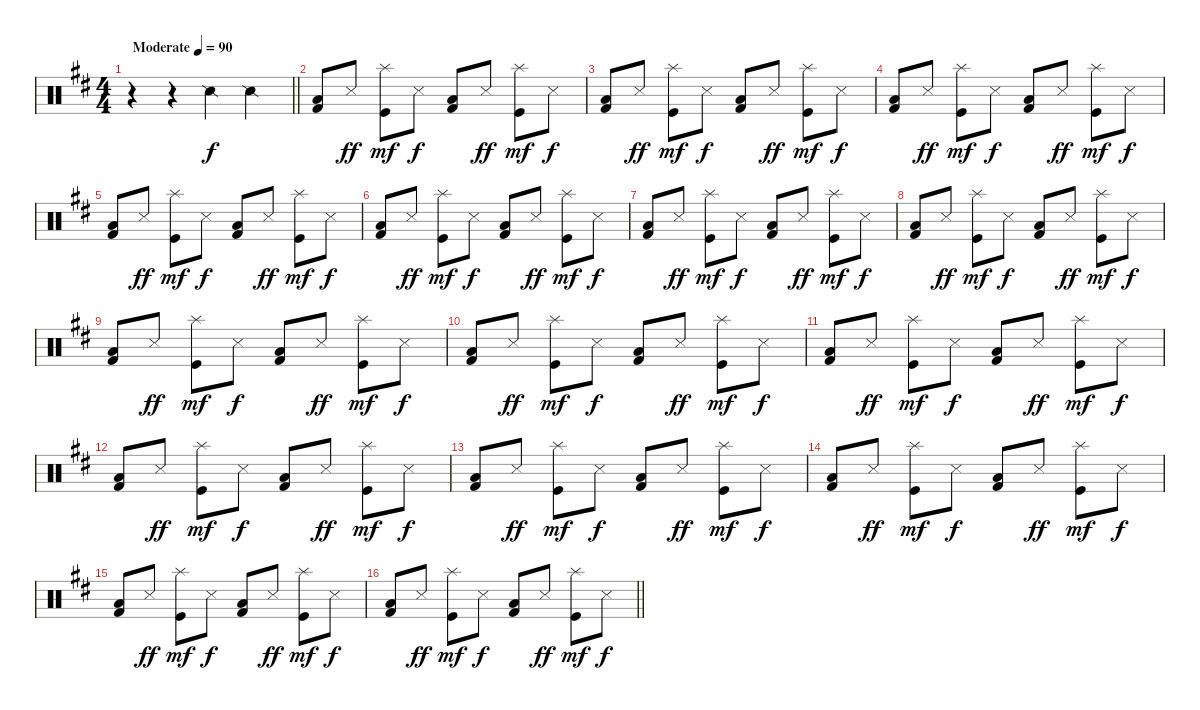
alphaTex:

\track "" {instrument percussion}
\staff {score}
\articulation defaults
\ts (4 4)
\tempo (90 "Moderate")
\clef neutral
\barLineRight lightlight
\ks d
r.4{dy f} r.4 "Snare (side stick) 2".4 "Snare (side stick) 2".4 |
\section ("" "")
("Kick (hit) 2" "Low Floor Tom (hit)").8 "Snare (side stick) 3".8{dy ff} ("Splash (hit)" "Kick (hit)").8{dy mf} "Snare (side stick) 3".8{dy f} ("Kick (hit) 2" "Low Floor Tom (hit)").8 "Snare (side stick) 3".8{dy ff} ("Splash (hit)" "Kick (hit)").8{dy mf} "Snare (side stick) 3".8{dy f} |
("Kick (hit) 2" "Low Floor Tom (hit)").8 "Snare (side stick) 3".8{dy ff} ("Splash (hit)" "Kick (hit)").8{dy mf} "Snare (side stick) 3".8{dy f} ("Kick (hit) 2" "Low Floor Tom (hit)").8 "Snare (side stick) 3".8{dy ff} ("Splash (hit)" "Kick (hit)").8{dy mf} "Snare (side stick) 3".8{dy f} |
("Kick (hit) 2" "Low Floor Tom (hit)").8 "Snare (side stick) 3".8{dy ff} ("Splash (hit)" "Kick (hit)").8{dy mf} "Snare (side stick) 3".8{dy f} ("Kick (hit) 2" "Low Floor Tom (hit)").8 "Snare (side stick) 3".8{dy ff} ("Splash (hit)" "Kick (hit)").8{dy mf} "Snare (side stick) 3".8{dy f} |
("Kick (hit) 2" "Low Floor Tom (hit)").8 "Snare (side stick) 3".8{dy ff} ("Splash (hit)" "Kick (hit)").8{dy mf} "Snare (side stick) 3".8{dy f} ("Kick (hit) 2" "Low Floor Tom (hit)").8 "Snare (side stick) 3".8{dy ff} ("Splash (hit)" "Kick (hit)").8{dy mf} "Snare (side stick) 3".8{dy f} |
("Kick (hit) 2" "Low Floor Tom (hit)").8 "Snare (side stick) 3".8{dy ff} ("Splash (hit)" "Kick (hit)").8{dy mf} "Snare (side stick) 3".8{dy f} ("Kick (hit) 2" "Low Floor Tom (hit)").8 "Snare (side stick) 3".8{dy ff} ("Splash (hit)" "Kick (hit)").8{dy mf} "Snare (side stick) 3".8{dy f} |
("Kick (hit) 2" "Low Floor Tom (hit)").8 "Snare (side stick) 3".8{dy ff} ("Splash (hit)" "Kick (hit)").8{dy mf} "Snare (side stick) 3".8{dy f} ("Kick (hit) 2" "Low Floor Tom (hit)").8 "Snare (side stick) 3".8{dy ff} ("Splash (hit)" "Kick (hit)").8{dy mf} "Snare (side stick) 3".8{dy f} |
("Kick (hit) 2" "Low Floor Tom (hit)").8 "Snare (side stick) 3".8{dy ff} ("Splash (hit)" "Kick (hit)").8{dy mf} "Snare (side stick) 3".8{dy f} ("Kick (hit) 2" "Low Floor Tom (hit)").8 "Snare (side stick) 3".8{dy ff} ("Splash (hit)" "Kick (hit)").8{dy mf} "Snare (side stick) 3".8{dy f} |
("Kick (hit) 2" "Low Floor Tom (hit)").8 "Snare (side stick) 3".8{dy ff} ("Splash (hit)" "Kick (hit)").8{dy mf} "Snare (side stick) 3".8{dy f} ("Kick (hit) 2" "Low Floor Tom (hit)").8 "Snare (side stick) 3".8{dy ff} ("Splash (hit)" "Kick (hit)").8{dy mf} "Snare (side stick) 3".8{dy f} |
("Kick (hit) 2" "Low Floor Tom (hit)").8 "Snare (side stick) 3".8{dy ff} ("Splash (hit)" "Kick (hit)").8{dy mf} "Snare (side stick) 3".8{dy f} ("Kick (hit) 2" "Low Floor Tom (hit)").8 "Snare (side stick) 3".8{dy ff} ("Splash (hit)" "Kick (hit)").8{dy mf} "Snare (side stick) 3".8{dy f} |
("Kick (hit) 2" "Low Floor Tom (hit)").8 "Snare (side stick) 3".8{dy ff} ("Splash (hit)" "Kick (hit)").8{dy mf} "Snare (side stick) 3".8{dy f} ("Kick (hit) 2" "Low Floor Tom (hit)").8 "Snare (side stick) 3".8{dy ff} ("Splash (hit)" "Kick (hit)").8{dy mf} "Snare (side stick) 3".8{dy f} |
("Kick (hit) 2" "Low Floor Tom (hit)").8 "Snare (side stick) 3".8{dy ff} ("Splash (hit)" "Kick (hit)").8{dy mf} "Snare (side stick) 3".8{dy f} ("Kick (hit) 2" "Low Floor Tom (hit)").8 "Snare (side stick) 3".8{dy ff} ("Splash (hit)" "Kick (hit)").8{dy mf} "Snare (side stick) 3".8{dy f} |
("Kick (hit) 2" "Low Floor Tom (hit)").8 "Snare (side stick) 3".8{dy ff} ("Splash (hit)" "Kick (hit)").8{dy mf} "Snare (side stick) 3".8{dy f} ("Kick (hit) 2" "Low Floor Tom (hit)").8 "Snare (side stick) 3".8{dy ff} ("Splash (hit)" "Kick (hit)").8{dy mf} "Snare (side stick) 3".8{dy f} |
("Kick (hit) 2" "Low Floor Tom (hit)").8 "Snare (side stick) 3".8{dy ff} ("Splash (hit)" "Kick (hit)").8{dy mf} "Snare (side stick) 3".8{dy f} ("Kick (hit) 2" "Low Floor Tom (hit)").8 "Snare (side stick) 3".8{dy ff} ("Splash (hit)" "Kick (hit)").8{dy mf} "Snare (side stick) 3".8{dy f} |
("Kick (hit) 2" "Low Floor Tom (hit)").8 "Snare (side stick) 3".8{dy ff} ("Splash (hit)" "Kick (hit)").8{dy mf} "Snare (side stick) 3".8{dy f} ("Kick (hit) 2" "Low Floor Tom (hit)").8 "Snare (side stick) 3".8{dy ff} ("Splash (hit)" "Kick (hit)").8{dy mf} "Snare (side stick) 3".8{dy f} |
\barLineRight lightlight
("Kick (hit) 2" "Low Floor Tom (hit)").8 "Snare (side stick) 3".8{dy ff} ("Splash (hit)" "Kick (hit)").8{dy mf} "Snare (side stick) 3".8{dy f} ("Kick (hit) 2" "Low Floor Tom (hit)").8 "Snare (side stick) 3".8{dy ff} ("Splash (hit)" "Kick (hit)").8{dy mf} "Snare (side stick) 3".8{dy f}
